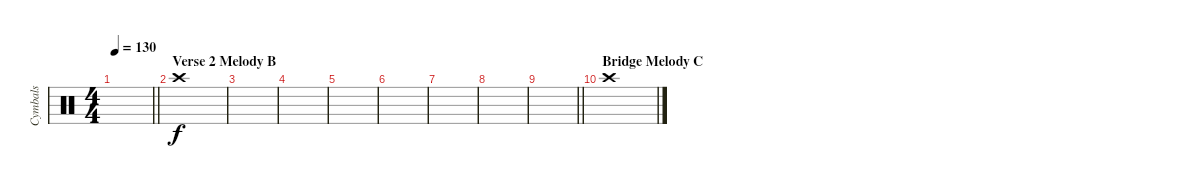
\track ("Cymbals" "Cymbals") {instrument percussion}
\staff {score}
\articulation defaults
\ts (4 4)
\tempo 130
\clef neutral
\barLineRight lightlight
\ks c
|
\section ("" "Verse 2 Melody B")
"Crash high (hit)".1 |
|
|
|
|
|
|
\barLineRight lightlight
|
\section ("" "Bridge Melody C")
"Crash high (hit)".1
